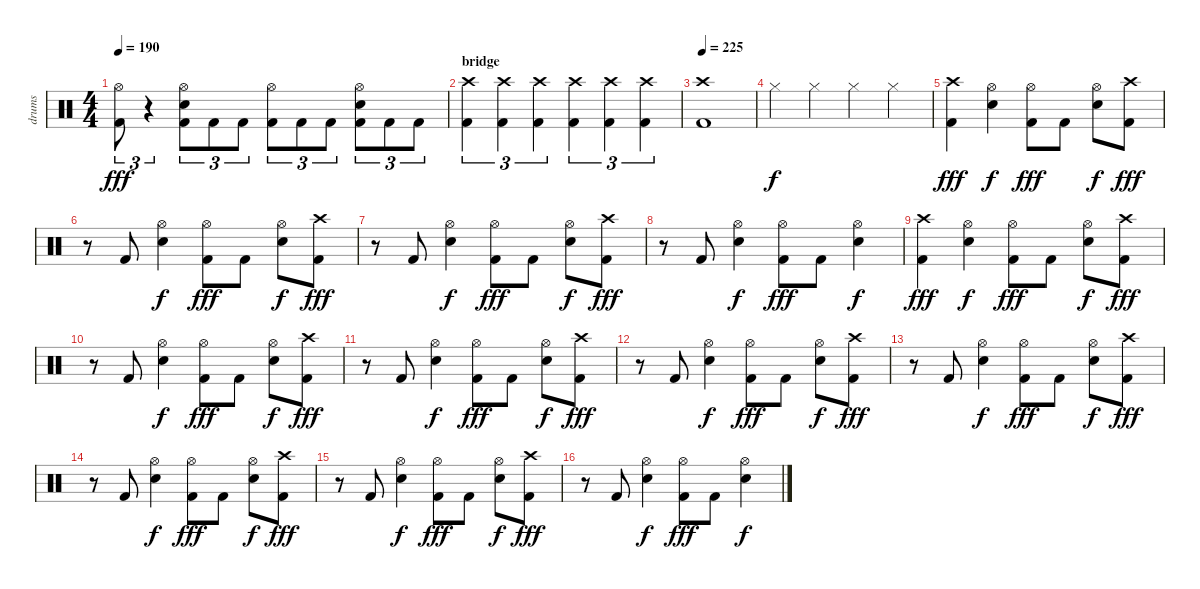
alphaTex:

\track ("drums" "drums") {instrument percussion}
\staff {score}
\articulation defaults
\ts (4 4)
\tempo 190
\clef neutral
\ks c
("Hi-Hat (open)" "Kick (hit) 2").8{tu (3 2) dy fff} r.4{tu (3 2)} ("Hi-Hat (open)" "Snare (hit) 2" "Kick (hit) 2").8{tu (3 2)} "Kick (hit) 2".8{tu (3 2)} "Kick (hit) 2".8{tu (3 2)} ("Hi-Hat (open)" "Kick (hit) 2").8{tu (3 2)} "Kick (hit) 2".8{tu (3 2)} "Kick (hit) 2".8{tu (3 2)} ("Hi-Hat (open)" "Snare (hit) 2" "Kick (hit) 2").8{tu (3 2)} "Kick (hit) 2".8{tu (3 2)} "Kick (hit) 2".8{tu (3 2)} |
\section ("" "bridge")
("Crash high (hit)" "Kick (hit) 2").4{tu (3 2)} ("Crash high (hit)" "Kick (hit) 2").4{tu (3 2)} ("Crash high (hit)" "Kick (hit) 2").4{tu (3 2)} ("Crash high (hit)" "Kick (hit) 2").4{tu (3 2)} ("Crash high (hit)" "Kick (hit) 2").4{tu (3 2)} ("Crash high (hit)" "Kick (hit) 2").4{tu (3 2)} |
\tempo 225
("Crash high (hit)" "Kick (hit) 2").1 |
"Hi-Hat (closed)".4{dy f} "Hi-Hat (closed)".4 "Hi-Hat (closed)".4 "Hi-Hat (closed)".4 |
("Crash high (hit)" "Kick (hit) 2").4{dy fff} ("Hi-Hat (open)" "Snare (hit) 2").4{dy f} ("Hi-Hat (open)" "Kick (hit) 2").8{dy fff} "Kick (hit) 2".8 ("Hi-Hat (open)" "Snare (hit) 2").8{dy f} ("Crash high (hit)" "Kick (hit) 2").8{dy fff} |
r.8 "Kick (hit) 2".8 ("Hi-Hat (open)" "Snare (hit) 2").4{dy f} ("Hi-Hat (open)" "Kick (hit) 2").8{dy fff} "Kick (hit) 2".8 ("Hi-Hat (open)" "Snare (hit) 2").8{dy f} ("Crash high (hit)" "Kick (hit) 2").8{dy fff} |
r.8 "Kick (hit) 2".8 ("Hi-Hat (open)" "Snare (hit) 2").4{dy f} ("Hi-Hat (open)" "Kick (hit) 2").8{dy fff} "Kick (hit) 2".8 ("Hi-Hat (open)" "Snare (hit) 2").8{dy f} ("Crash high (hit)" "Kick (hit) 2").8{dy fff} |
r.8 "Kick (hit) 2".8 ("Hi-Hat (open)" "Snare (hit) 2").4{dy f} ("Hi-Hat (open)" "Kick (hit) 2").8{dy fff} "Kick (hit) 2".8 ("Hi-Hat (open)" "Snare (hit) 2").4{dy f} |
("Crash high (hit)" "Kick (hit) 2").4{dy fff} ("Hi-Hat (open)" "Snare (hit) 2").4{dy f} ("Hi-Hat (open)" "Kick (hit) 2").8{dy fff} "Kick (hit) 2".8 ("Hi-Hat (open)" "Snare (hit) 2").8{dy f} ("Crash high (hit)" "Kick (hit) 2").8{dy fff} |
r.8 "Kick (hit) 2".8 ("Hi-Hat (open)" "Snare (hit) 2").4{dy f} ("Hi-Hat (open)" "Kick (hit) 2").8{dy fff} "Kick (hit) 2".8 ("Hi-Hat (open)" "Snare (hit) 2").8{dy f} ("Crash high (hit)" "Kick (hit) 2").8{dy fff} |
r.8 "Kick (hit) 2".8 ("Hi-Hat (open)" "Snare (hit) 2").4{dy f} ("Hi-Hat (open)" "Kick (hit) 2").8{dy fff} "Kick (hit) 2".8 ("Hi-Hat (open)" "Snare (hit) 2").8{dy f} ("Crash high (hit)" "Kick (hit) 2").8{dy fff} |
r.8 "Kick (hit) 2".8 ("Hi-Hat (open)" "Snare (hit) 2").4{dy f} ("Hi-Hat (open)" "Kick (hit) 2").8{dy fff} "Kick (hit) 2".8 ("Hi-Hat (open)" "Snare (hit) 2").8{dy f} ("Crash high (hit)" "Kick (hit) 2").8{dy fff} |
r.8 "Kick (hit) 2".8 ("Hi-Hat (open)" "Snare (hit) 2").4{dy f} ("Hi-Hat (open)" "Kick (hit) 2").8{dy fff} "Kick (hit) 2".8 ("Hi-Hat (open)" "Snare (hit) 2").8{dy f} ("Crash high (hit)" "Kick (hit) 2").8{dy fff} |
r.8 "Kick (hit) 2".8 ("Hi-Hat (open)" "Snare (hit) 2").4{dy f} ("Hi-Hat (open)" "Kick (hit) 2").8{dy fff} "Kick (hit) 2".8 ("Hi-Hat (open)" "Snare (hit) 2").8{dy f} ("Crash high (hit)" "Kick (hit) 2").8{dy fff} |
r.8 "Kick (hit) 2".8 ("Hi-Hat (open)" "Snare (hit) 2").4{dy f} ("Hi-Hat (open)" "Kick (hit) 2").8{dy fff} "Kick (hit) 2".8 ("Hi-Hat (open)" "Snare (hit) 2").8{dy f} ("Crash high (hit)" "Kick (hit) 2").8{dy fff} |
r.8 "Kick (hit) 2".8 ("Hi-Hat (open)" "Snare (hit) 2").4{dy f} ("Hi-Hat (open)" "Kick (hit) 2").8{dy fff} "Kick (hit) 2".8 ("Hi-Hat (open)" "Snare (hit) 2").4{dy f}
